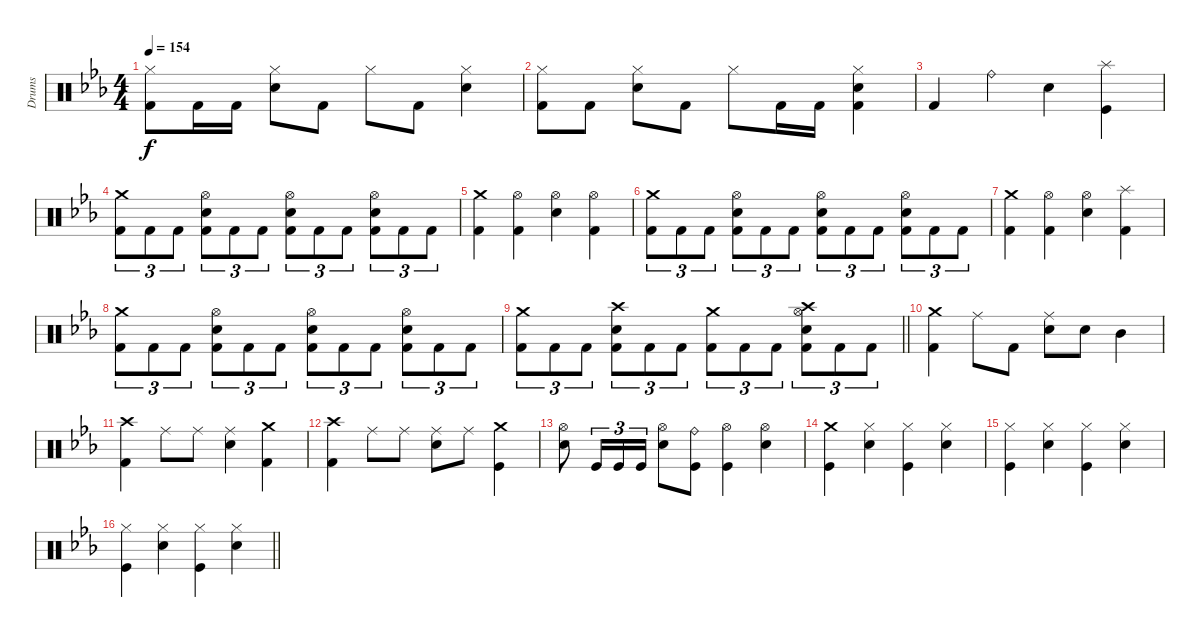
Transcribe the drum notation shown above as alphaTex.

\track ("Drums" "Drums") {instrument percussion}
\staff {score}
\articulation defaults
\ts (4 4)
\tempo 154
\clef neutral
\ks cminor
("Hi-Hat (closed)" "Kick (hit) 2").8{dy f} "Kick (hit) 2".16 "Kick (hit) 2".16 ("Hi-Hat (closed)" "Snare (hit) 2").8 "Kick (hit) 2".8 "Hi-Hat (closed)".8 "Kick (hit) 2".8 ("Hi-Hat (closed)" "Snare (hit) 2").4 |
("Hi-Hat (closed)" "Kick (hit) 2").8 "Kick (hit) 2".8 ("Hi-Hat (closed)" "Snare (hit) 2").8 "Kick (hit) 2".8 "Hi-Hat (closed)".8 "Kick (hit) 2".16 "Kick (hit) 2".16 ("Hi-Hat (closed)" "Snare (hit) 2" "Kick (hit) 2").4 |
"Kick (hit) 2".4 "Ride (bell)".4 "Snare (hit) 2".4 ("Splash (hit)" "Kick (hit)").4 |
("Crash medium (hit)" "Kick (hit) 2").8{tu (3 2)} "Kick (hit) 2".8{tu (3 2)} "Kick (hit) 2".8{tu (3 2)} ("Hi-Hat (open)" "Snare (hit) 2" "Kick (hit) 2").8{tu (3 2)} "Kick (hit) 2".8{tu (3 2)} "Kick (hit) 2".8{tu (3 2)} ("Hi-Hat (open)" "Snare (hit) 2" "Kick (hit) 2").8{tu (3 2)} "Kick (hit) 2".8{tu (3 2)} "Kick (hit) 2".8{tu (3 2)} ("Hi-Hat (open)" "Snare (hit) 2" "Kick (hit) 2").8{tu (3 2)} "Kick (hit) 2".8{tu (3 2)} "Kick (hit) 2".8{tu (3 2)} |
("Crash medium (hit)" "Kick (hit) 2").4 ("Hi-Hat (open)" "Kick (hit) 2").4 ("Hi-Hat (open)" "Snare (hit) 2").4 ("Hi-Hat (open)" "Kick (hit) 2").4 |
("Crash medium (hit)" "Kick (hit) 2").8{tu (3 2)} "Kick (hit) 2".8{tu (3 2)} "Kick (hit) 2".8{tu (3 2)} ("Hi-Hat (open)" "Snare (hit) 2" "Kick (hit) 2").8{tu (3 2)} "Kick (hit) 2".8{tu (3 2)} "Kick (hit) 2".8{tu (3 2)} ("Hi-Hat (open)" "Snare (hit) 2" "Kick (hit) 2").8{tu (3 2)} "Kick (hit) 2".8{tu (3 2)} "Kick (hit) 2".8{tu (3 2)} ("Hi-Hat (open)" "Snare (hit) 2" "Kick (hit) 2").8{tu (3 2)} "Kick (hit) 2".8{tu (3 2)} "Kick (hit) 2".8{tu (3 2)} |
("Crash medium (hit)" "Kick (hit) 2").4 ("Hi-Hat (open)" "Kick (hit) 2").4 ("Hi-Hat (open)" "Snare (hit) 2").4 ("Splash (hit)" "Kick (hit) 2").4 |
("Crash medium (hit)" "Kick (hit) 2").8{tu (3 2)} "Kick (hit) 2".8{tu (3 2)} "Kick (hit) 2".8{tu (3 2)} ("Hi-Hat (open)" "Snare (hit) 2" "Kick (hit) 2").8{tu (3 2)} "Kick (hit) 2".8{tu (3 2)} "Kick (hit) 2".8{tu (3 2)} ("Hi-Hat (open)" "Snare (hit) 2" "Kick (hit) 2").8{tu (3 2)} "Kick (hit) 2".8{tu (3 2)} "Kick (hit) 2".8{tu (3 2)} ("Hi-Hat (open)" "Snare (hit) 2" "Kick (hit) 2").8{tu (3 2)} "Kick (hit) 2".8{tu (3 2)} "Kick (hit) 2".8{tu (3 2)} |
\barLineRight lightlight
("Crash medium (hit)" "Kick (hit) 2").8{tu (3 2)} "Kick (hit) 2".8{tu (3 2)} "Kick (hit) 2".8{tu (3 2)} ("Crash high (hit)" "Snare (hit) 2" "Kick (hit) 2").8{tu (3 2)} "Kick (hit) 2".8{tu (3 2)} "Kick (hit) 2".8{tu (3 2)} ("Crash medium (hit)" "Kick (hit) 2").8{tu (3 2)} "Kick (hit) 2".8{tu (3 2)} "Kick (hit) 2".8{tu (3 2)} ("Crash high (hit)" "Hi-Hat (open)" "Snare (hit) 2" "Kick (hit) 2").8{tu (3 2)} "Kick (hit) 2".8{tu (3 2)} "Kick (hit) 2".8{tu (3 2)} |
\section ("" "")
("Crash medium (hit)" "Kick (hit) 2").4 "Ride (middle)".8 "Kick (hit) 2".8 ("Ride (middle)" "Snare (hit) 2").8 "Snare (hit) 2".8 "Mid Tom (hit)".4 |
("Crash high (hit)" "Kick (hit) 2").4 "Ride (middle)".8 "Ride (middle)".8 ("Ride (middle)" "Snare (hit) 2").4 ("Crash medium (hit)" "Kick (hit) 2").4 |
("Crash high (hit)" "Kick (hit) 2").4 "Ride (middle)".8 "Ride (middle)".8 ("Ride (middle)" "Snare (hit) 2").8 "Ride (middle)".8 ("Crash medium (hit)" "Kick (hit)").4 |
("Hi-Hat (open)" "Snare (hit) 2").8 "Kick (hit)".16{tu (3 2)} "Kick (hit)".16{tu (3 2)} "Kick (hit)".16{tu (3 2)} ("Hi-Hat (open)" "Snare (hit) 2").8 ("Ride (bell)" "Kick (hit)").8 ("Hi-Hat (open)" "Kick (hit)").4 ("Hi-Hat (open)" "Snare (hit) 2").4 |
("Crash medium (hit)" "Kick (hit)").4 ("Hi-Hat (closed)" "Snare (hit) 2").4 ("Hi-Hat (closed)" "Kick (hit)").4 ("Hi-Hat (closed)" "Snare (hit) 2").4 |
("Hi-Hat (closed)" "Kick (hit)").4 ("Hi-Hat (closed)" "Snare (hit) 2").4 ("Hi-Hat (closed)" "Kick (hit)").4 ("Hi-Hat (closed)" "Snare (hit) 2").4 |
\barLineRight lightlight
("Hi-Hat (closed)" "Kick (hit)").4 ("Hi-Hat (closed)" "Snare (hit) 2").4 ("Hi-Hat (closed)" "Kick (hit)").4 ("Hi-Hat (closed)" "Snare (hit) 2").4
